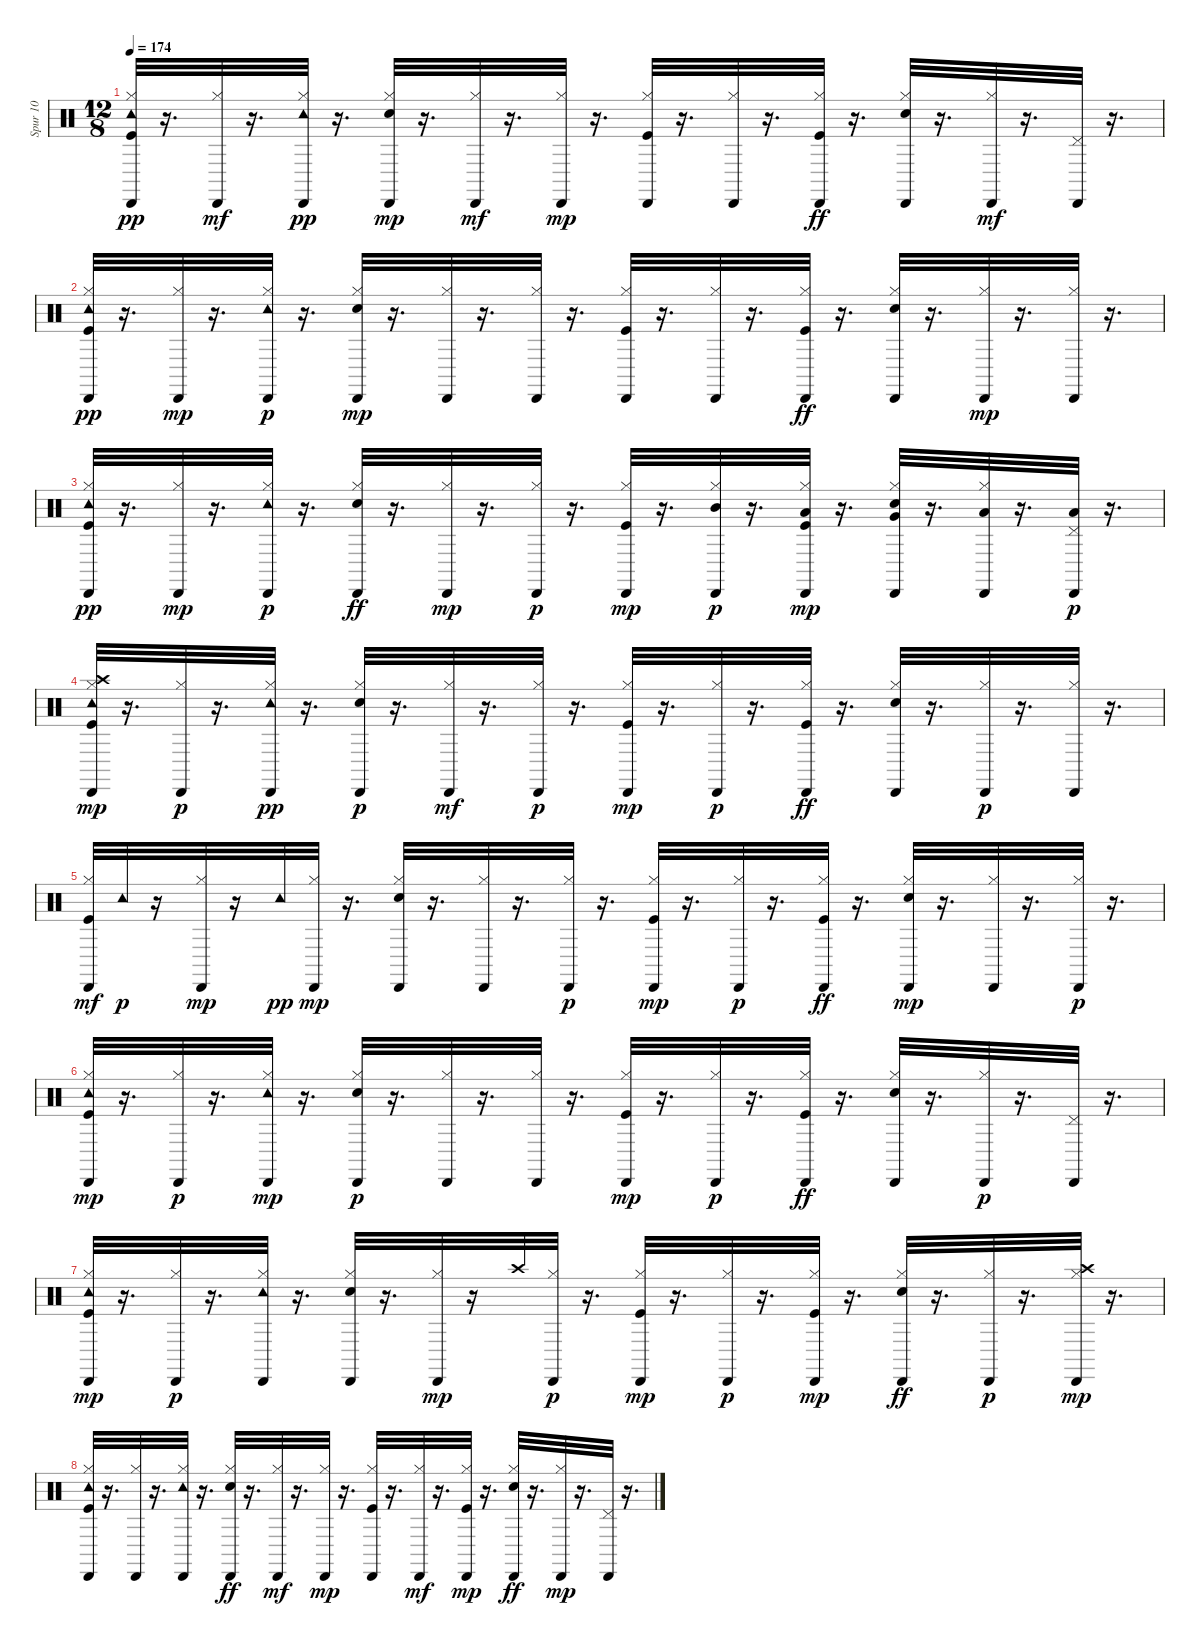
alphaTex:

\track ("Spur 10" "Spur 10") {instrument percussion}
\staff {score}
\articulation defaults
\ts (12 8)
\tempo 174
\clef neutral
\ks c
("Hi-Hat (closed)" "Kick (hit)" "Cabasa (hit)" "Tambourine (hit)").32{dy pp} r.16{d} ("Cabasa (hit)" "Hi-Hat (closed)").32{dy mf} r.16{d} ("Hi-Hat (closed)" "Cabasa (hit)" "Tambourine (hit)").32{dy pp} r.16{d} ("Hi-Hat (closed)" "Electric Snare (hit)" "Cabasa (hit)").32{dy mp} r.16{d} ("Cabasa (hit)" "Hi-Hat (closed)").32{dy mf} r.16{d} ("Hi-Hat (closed)" "Cabasa (hit)").32{dy mp} r.16{d} ("Cabasa (hit)" "Kick (hit)" "Hi-Hat (closed)").32 r.16{d} ("Cabasa (hit)" "Hi-Hat (closed)").32 r.16{d} ("Cabasa (hit)" "Hi-Hat (closed)" "Kick (hit)").32{dy ff} r.16{d} ("Cabasa (hit)" "Hi-Hat (closed)" "Electric Snare (hit)").32 r.16{d} ("Cabasa (hit)" "Hi-Hat (closed)").32{dy mf} r.16{d} ("Cabasa (hit)" "Pedal Hi-Hat (hit)").32 r.16{d} |
("Kick (hit)" "Cabasa (hit)" "Hi-Hat (closed)" "Tambourine (hit)").32{dy pp} r.16{d} ("Hi-Hat (closed)" "Cabasa (hit)").32{dy mp} r.16{d} ("Hi-Hat (closed)" "Cabasa (hit)" "Tambourine (hit)").32{dy p} r.16{d} ("Hi-Hat (closed)" "Electric Snare (hit)" "Cabasa (hit)").32{dy mp} r.16{d} ("Hi-Hat (closed)" "Cabasa (hit)").32 r.16{d} ("Hi-Hat (closed)" "Cabasa (hit)").32 r.16{d} ("Hi-Hat (closed)" "Kick (hit)" "Cabasa (hit)").32 r.16{d} ("Hi-Hat (closed)" "Cabasa (hit)").32 r.16{d} ("Hi-Hat (closed)" "Cabasa (hit)" "Kick (hit)").32{dy ff} r.16{d} ("Hi-Hat (closed)" "Cabasa (hit)" "Electric Snare (hit)").32 r.16{d} ("Hi-Hat (closed)" "Cabasa (hit)").32{dy mp} r.16{d} ("Hi-Hat (closed)" "Cabasa (hit)").32 r.16{d} |
("Hi-Hat (closed)" "Kick (hit)" "Cabasa (hit)" "Tambourine (hit)").32{dy pp} r.16{d} ("Hi-Hat (closed)" "Cabasa (hit)").32{dy mp} r.16{d} ("Hi-Hat (closed)" "Cabasa (hit)" "Tambourine (hit)").32{dy p} r.16{d} ("Hi-Hat (closed)" "Cabasa (hit)" "Electric Snare (hit)").32{dy ff} r.16{d} ("Hi-Hat (closed)" "Cabasa (hit)").32{dy mp} r.16{d} ("Hi-Hat (closed)" "Cabasa (hit)").32{dy p} r.16{d} ("Hi-Hat (closed)" "Kick (hit)" "Cabasa (hit)").32{dy mp} r.16{d} ("Hi-Hat (closed)" "Mid Tom (hit)" "Cabasa (hit)").32{dy p} r.16{d} ("Hi-Hat (closed)" "Kick (hit)" "Cabasa (hit)" "Low Tom (hit)").32{dy mp} r.16{d} ("Hi-Hat (closed)" "Electric Snare (hit)" "Very Low Tom (hit)" "Cabasa (hit)").32 r.16{d} ("Hi-Hat (closed)" "Low Tom (hit)" "Cabasa (hit)").32 r.16{d} ("Pedal Hi-Hat (hit)" "Low Floor Tom (hit)" "Cabasa (hit)").32{dy p} r.16{d} |
("Tambourine (hit)" "Hi-Hat (closed)" "Kick (hit)" "Crash high (hit)" "Cabasa (hit)").32{dy mp} r.16{d} ("Hi-Hat (closed)" "Cabasa (hit)").32{dy p} r.16{d} ("Hi-Hat (closed)" "Cabasa (hit)" "Tambourine (hit)").32{dy pp} r.16{d} ("Hi-Hat (closed)" "Electric Snare (hit)" "Cabasa (hit)").32{dy p} r.16{d} ("Cabasa (hit)" "Hi-Hat (closed)").32{dy mf} r.16{d} ("Hi-Hat (closed)" "Cabasa (hit)").32{dy p} r.16{d} ("Kick (hit)" "Cabasa (hit)" "Hi-Hat (closed)").32{dy mp} r.16{d} ("Hi-Hat (closed)" "Cabasa (hit)").32{dy p} r.16{d} ("Hi-Hat (closed)" "Cabasa (hit)" "Kick (hit)").32{dy ff} r.16{d} ("Hi-Hat (closed)" "Cabasa (hit)" "Electric Snare (hit)").32 r.16{d} ("Hi-Hat (closed)" "Cabasa (hit)").32{dy p} r.16{d} ("Hi-Hat (closed)" "Cabasa (hit)").32 r.16{d} |
("Kick (hit)" "Cabasa (hit)" "Hi-Hat (closed)").32{dy mf} "Tambourine (hit)".32{dy p} r.16 ("Cabasa (hit)" "Hi-Hat (closed)").32{dy mp} r.16 "Tambourine (hit)".32{dy pp} ("Cabasa (hit)" "Hi-Hat (closed)").32{dy mp} r.16{d} ("Cabasa (hit)" "Electric Snare (hit)" "Hi-Hat (closed)").32 r.16{d} ("Cabasa (hit)" "Hi-Hat (closed)").32 r.16{d} ("Cabasa (hit)" "Hi-Hat (closed)").32{dy p} r.16{d} ("Hi-Hat (closed)" "Kick (hit)" "Cabasa (hit)").32{dy mp} r.16{d} ("Hi-Hat (closed)" "Cabasa (hit)").32{dy p} r.16{d} ("Hi-Hat (closed)" "Cabasa (hit)" "Kick (hit)").32{dy ff} r.16{d} ("Hi-Hat (closed)" "Electric Snare (hit)" "Cabasa (hit)").32{dy mp} r.16{d} ("Hi-Hat (closed)" "Cabasa (hit)").32 r.16{d} ("Hi-Hat (closed)" "Cabasa (hit)").32{dy p} r.16{d} |
("Tambourine (hit)" "Hi-Hat (closed)" "Kick (hit)" "Cabasa (hit)").32{dy mp} r.16{d} ("Hi-Hat (closed)" "Cabasa (hit)").32{dy p} r.16{d} ("Tambourine (hit)" "Hi-Hat (closed)" "Cabasa (hit)").32{dy mp} r.16{d} ("Hi-Hat (closed)" "Electric Snare (hit)" "Cabasa (hit)").32{dy p} r.16{d} ("Hi-Hat (closed)" "Cabasa (hit)").32 r.16{d} ("Hi-Hat (closed)" "Cabasa (hit)").32 r.16{d} ("Hi-Hat (closed)" "Kick (hit)" "Cabasa (hit)").32{dy mp} r.16{d} ("Hi-Hat (closed)" "Cabasa (hit)").32{dy p} r.16{d} ("Hi-Hat (closed)" "Cabasa (hit)" "Kick (hit)").32{dy ff} r.16{d} ("Hi-Hat (closed)" "Cabasa (hit)" "Electric Snare (hit)").32 r.16{d} ("Hi-Hat (closed)" "Cabasa (hit)").32{dy p} r.16{d} ("Pedal Hi-Hat (hit)" "Cabasa (hit)").32 r.16{d} |
("Tambourine (hit)" "Hi-Hat (closed)" "Kick (hit)" "Cabasa (hit)").32{dy mp} r.16{d} ("Hi-Hat (closed)" "Cabasa (hit)").32{dy p} r.16{d} ("Tambourine (hit)" "Hi-Hat (closed)" "Cabasa (hit)").32 r.16{d} ("Hi-Hat (closed)" "Electric Snare (hit)" "Cabasa (hit)").32 r.16{d} ("Hi-Hat (closed)" "Cabasa (hit)").32{dy mp} r.16 "Crash high (hit)".32 ("Hi-Hat (closed)" "Cabasa (hit)").32{dy p} r.16{d} ("Hi-Hat (closed)" "Kick (hit)" "Cabasa (hit)").32{dy mp} r.16{d} ("Hi-Hat (closed)" "Cabasa (hit)").32{dy p} r.16{d} ("Hi-Hat (closed)" "Kick (hit)" "Cabasa (hit)").32{dy mp} r.16{d} ("Hi-Hat (closed)" "Cabasa (hit)" "Electric Snare (hit)").32{dy ff} r.16{d} ("Hi-Hat (closed)" "Cabasa (hit)").32{dy p} r.16{d} ("Crash high (hit)" "Hi-Hat (closed)" "Cabasa (hit)").32{dy mp} r.16{d} |
("Tambourine (hit)" "Hi-Hat (closed)" "Kick (hit)" "Cabasa (hit)").32 r.16{d} ("Cabasa (hit)" "Hi-Hat (closed)").32 r.16{d} ("Tambourine (hit)" "Cabasa (hit)" "Hi-Hat (closed)").32 r.16{d} ("Cabasa (hit)" "Hi-Hat (closed)" "Electric Snare (hit)").32{dy ff} r.16{d} ("Cabasa (hit)" "Hi-Hat (closed)").32{dy mf} r.16{d} ("Hi-Hat (closed)" "Cabasa (hit)").32{dy mp} r.16{d} ("Cabasa (hit)" "Hi-Hat (closed)" "Kick (hit)").32 r.16{d} ("Cabasa (hit)" "Hi-Hat (closed)").32{dy mf} r.16{d} ("Cabasa (hit)" "Hi-Hat (closed)" "Kick (hit)").32{dy mp} r.16{d} ("Hi-Hat (closed)" "Cabasa (hit)" "Electric Snare (hit)").32{dy ff} r.16{d} ("Hi-Hat (closed)" "Cabasa (hit)").32{dy mp} r.16{d} ("Pedal Hi-Hat (hit)" "Cabasa (hit)").32 r.16{d}
